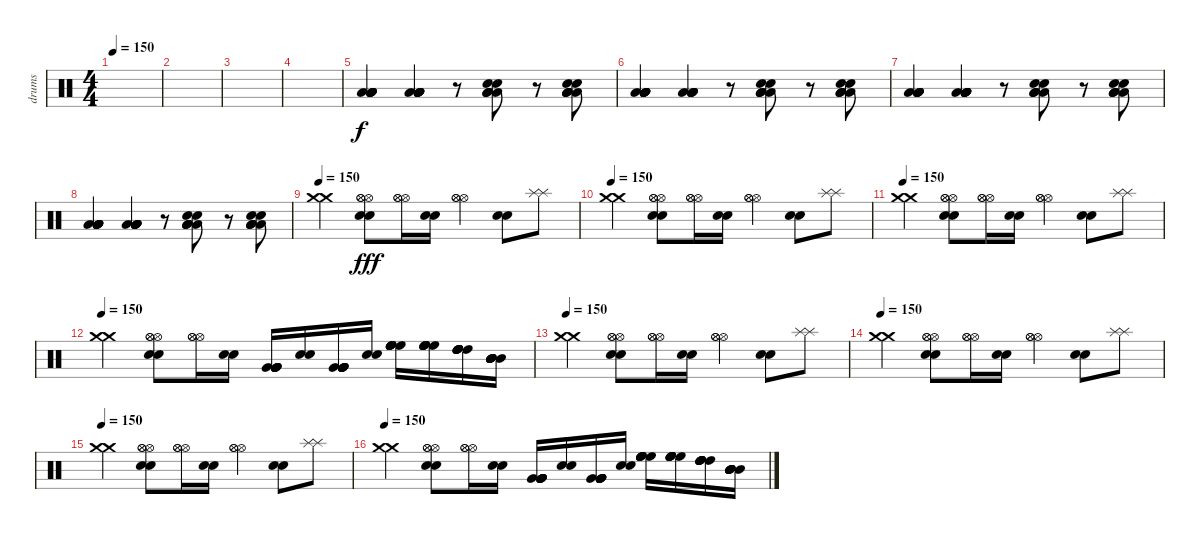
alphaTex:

\track ("drums" "drums") {instrument percussion}
\staff {score}
\articulation defaults
\ts (4 4)
\tempo 150
\clef neutral
\ks c
|
|
|
|
("Low Floor Tom (hit)" "Low Floor Tom (hit)" "Low Floor Tom (hit)" "Low Floor Tom (hit)" "Low Floor Tom (hit)" "Low Floor Tom (hit)").4{dy f} ("Low Floor Tom (hit)" "Low Floor Tom (hit)" "Low Floor Tom (hit)" "Low Tom (hit)" "Low Tom (hit)" "Low Tom (hit)").4 r.8 ("Low Floor Tom (hit)" "Low Floor Tom (hit)" "Low Floor Tom (hit)" "Low Floor Tom (hit)" "Snare (hit) 2" "Snare (hit) 2").8 r.8 ("Low Floor Tom (hit)" "Low Floor Tom (hit)" "Low Floor Tom (hit)" "Low Floor Tom (hit)" "Snare (hit) 2" "Snare (hit) 2").8 |
("Low Floor Tom (hit)" "Low Floor Tom (hit)" "Low Floor Tom (hit)" "Low Floor Tom (hit)" "Low Floor Tom (hit)" "Low Floor Tom (hit)").4 ("Low Floor Tom (hit)" "Low Floor Tom (hit)" "Low Floor Tom (hit)" "Low Tom (hit)" "Low Tom (hit)" "Low Tom (hit)").4 r.8 ("Low Floor Tom (hit)" "Low Floor Tom (hit)" "Low Floor Tom (hit)" "Low Floor Tom (hit)" "Snare (hit) 2" "Snare (hit) 2").8 r.8 ("Low Floor Tom (hit)" "Low Floor Tom (hit)" "Low Floor Tom (hit)" "Low Floor Tom (hit)" "Snare (hit) 2" "Snare (hit) 2").8 |
("Low Floor Tom (hit)" "Low Floor Tom (hit)" "Low Floor Tom (hit)" "Low Floor Tom (hit)" "Low Floor Tom (hit)" "Low Floor Tom (hit)").4 ("Low Floor Tom (hit)" "Low Floor Tom (hit)" "Low Floor Tom (hit)" "Low Tom (hit)" "Low Tom (hit)" "Low Tom (hit)").4 r.8 ("Low Floor Tom (hit)" "Low Floor Tom (hit)" "Low Floor Tom (hit)" "Low Floor Tom (hit)" "Snare (hit) 2" "Snare (hit) 2").8 r.8 ("Low Floor Tom (hit)" "Low Floor Tom (hit)" "Low Floor Tom (hit)" "Low Floor Tom (hit)" "Snare (hit) 2" "Snare (hit) 2").8 |
("Low Floor Tom (hit)" "Low Floor Tom (hit)" "Low Floor Tom (hit)" "Low Floor Tom (hit)" "Low Floor Tom (hit)" "Low Floor Tom (hit)").4 ("Low Floor Tom (hit)" "Low Floor Tom (hit)" "Low Floor Tom (hit)" "Low Tom (hit)" "Low Tom (hit)" "Low Tom (hit)").4 r.8 ("Low Floor Tom (hit)" "Low Floor Tom (hit)" "Low Floor Tom (hit)" "Low Floor Tom (hit)" "Snare (hit) 2" "Snare (hit) 2").8 r.8 ("Low Floor Tom (hit)" "Low Floor Tom (hit)" "Low Floor Tom (hit)" "Low Floor Tom (hit)" "Snare (hit) 2" "Snare (hit) 2").8 |
\tempo 150
("Crash medium (hit)" "Crash medium (hit)").4{volume 16} ("Snare (hit) 2" "Snare (hit) 2" "Hi-Hat (open)" "Hi-Hat (open)" "Hi-Hat (open)").8{dy fff} ("Hi-Hat (open)" "Hi-Hat (open)" "Hi-Hat (open)").16 ("Snare (hit) 2" "Snare (hit) 2").16 ("Hi-Hat (open)" "Hi-Hat (open)" "Hi-Hat (open)").4 ("Snare (hit) 2" "Snare (hit) 2").8 ("Splash (hit)" "Splash (hit)").8 |
\tempo 150
("Crash medium (hit)" "Crash medium (hit)").4 ("Snare (hit) 2" "Snare (hit) 2" "Hi-Hat (open)" "Hi-Hat (open)" "Hi-Hat (open)").8 ("Hi-Hat (open)" "Hi-Hat (open)" "Hi-Hat (open)").16 ("Snare (hit) 2" "Snare (hit) 2").16 ("Hi-Hat (open)" "Hi-Hat (open)" "Hi-Hat (open)").4 ("Snare (hit) 2" "Snare (hit) 2").8 ("Splash (hit)" "Splash (hit)").8 |
\tempo 150
("Crash medium (hit)" "Crash medium (hit)").4 ("Snare (hit) 2" "Snare (hit) 2" "Hi-Hat (open)" "Hi-Hat (open)" "Hi-Hat (open)").8 ("Hi-Hat (open)" "Hi-Hat (open)" "Hi-Hat (open)").16 ("Snare (hit) 2" "Snare (hit) 2").16 ("Hi-Hat (open)" "Hi-Hat (open)" "Hi-Hat (open)").4 ("Snare (hit) 2" "Snare (hit) 2").8 ("Splash (hit)" "Splash (hit)").8 |
\tempo 150
("Crash medium (hit)" "Crash medium (hit)").4 ("Snare (hit) 2" "Snare (hit) 2" "Hi-Hat (open)" "Hi-Hat (open)" "Hi-Hat (open)").8 ("Hi-Hat (open)" "Hi-Hat (open)" "Hi-Hat (open)").16 ("Snare (hit) 2" "Snare (hit) 2").16 ("Very Low Tom (hit)" "Very Low Tom (hit)" "Very Low Tom (hit)" "Very Low Tom (hit)" "Very Low Tom (hit)" "Very Low Tom (hit)").16 ("Snare (hit) 2" "Snare (hit) 2").16 ("Very Low Tom (hit)" "Very Low Tom (hit)" "Very Low Tom (hit)" "Very Low Tom (hit)" "Very Low Tom (hit)" "Very Low Tom (hit)").16 ("Snare (hit) 2" "Snare (hit) 2").16 ("High Floor Tom (hit)" "High Floor Tom (hit)" "High Floor Tom (hit)" "High Floor Tom (hit)" "High Floor Tom (hit)" "High Floor Tom (hit)").16 ("High Floor Tom (hit)" "High Floor Tom (hit)" "High Floor Tom (hit)" "High Floor Tom (hit)" "High Floor Tom (hit)" "High Floor Tom (hit)").16 ("High Tom (hit)" "High Tom (hit)" "High Tom (hit)" "High Tom (hit)" "High Tom (hit)" "High Tom (hit)").16 ("Mid Tom (hit)" "Mid Tom (hit)" "Mid Tom (hit)" "Mid Tom (hit)" "Mid Tom (hit)" "Mid Tom (hit)").16 |
\tempo 150
("Crash medium (hit)" "Crash medium (hit)").4 ("Snare (hit) 2" "Snare (hit) 2" "Hi-Hat (open)" "Hi-Hat (open)" "Hi-Hat (open)").8 ("Hi-Hat (open)" "Hi-Hat (open)" "Hi-Hat (open)").16 ("Snare (hit) 2" "Snare (hit) 2").16 ("Hi-Hat (open)" "Hi-Hat (open)" "Hi-Hat (open)").4 ("Snare (hit) 2" "Snare (hit) 2").8 ("Splash (hit)" "Splash (hit)").8 |
\tempo 150
("Crash medium (hit)" "Crash medium (hit)").4 ("Snare (hit) 2" "Snare (hit) 2" "Hi-Hat (open)" "Hi-Hat (open)" "Hi-Hat (open)").8 ("Hi-Hat (open)" "Hi-Hat (open)" "Hi-Hat (open)").16 ("Snare (hit) 2" "Snare (hit) 2").16 ("Hi-Hat (open)" "Hi-Hat (open)" "Hi-Hat (open)").4 ("Snare (hit) 2" "Snare (hit) 2").8 ("Splash (hit)" "Splash (hit)").8 |
\tempo 150
("Crash medium (hit)" "Crash medium (hit)").4 ("Snare (hit) 2" "Snare (hit) 2" "Hi-Hat (open)" "Hi-Hat (open)" "Hi-Hat (open)").8 ("Hi-Hat (open)" "Hi-Hat (open)" "Hi-Hat (open)").16 ("Snare (hit) 2" "Snare (hit) 2").16 ("Hi-Hat (open)" "Hi-Hat (open)" "Hi-Hat (open)").4 ("Snare (hit) 2" "Snare (hit) 2").8 ("Splash (hit)" "Splash (hit)").8 |
\tempo 150
("Crash medium (hit)" "Crash medium (hit)").4 ("Snare (hit) 2" "Snare (hit) 2" "Hi-Hat (open)" "Hi-Hat (open)" "Hi-Hat (open)").8 ("Hi-Hat (open)" "Hi-Hat (open)" "Hi-Hat (open)").16 ("Snare (hit) 2" "Snare (hit) 2").16 ("Very Low Tom (hit)" "Very Low Tom (hit)" "Very Low Tom (hit)" "Very Low Tom (hit)" "Very Low Tom (hit)" "Very Low Tom (hit)").16 ("Snare (hit) 2" "Snare (hit) 2").16 ("Very Low Tom (hit)" "Very Low Tom (hit)" "Very Low Tom (hit)" "Very Low Tom (hit)" "Very Low Tom (hit)" "Very Low Tom (hit)").16 ("Snare (hit) 2" "Snare (hit) 2").16 ("High Floor Tom (hit)" "High Floor Tom (hit)" "High Floor Tom (hit)" "High Floor Tom (hit)" "High Floor Tom (hit)" "High Floor Tom (hit)").16 ("High Floor Tom (hit)" "High Floor Tom (hit)" "High Floor Tom (hit)" "High Floor Tom (hit)" "High Floor Tom (hit)" "High Floor Tom (hit)").16 ("High Tom (hit)" "High Tom (hit)" "High Tom (hit)" "High Tom (hit)" "High Tom (hit)" "High Tom (hit)").16 ("Mid Tom (hit)" "Mid Tom (hit)" "Mid Tom (hit)" "Mid Tom (hit)" "Mid Tom (hit)" "Mid Tom (hit)").16
